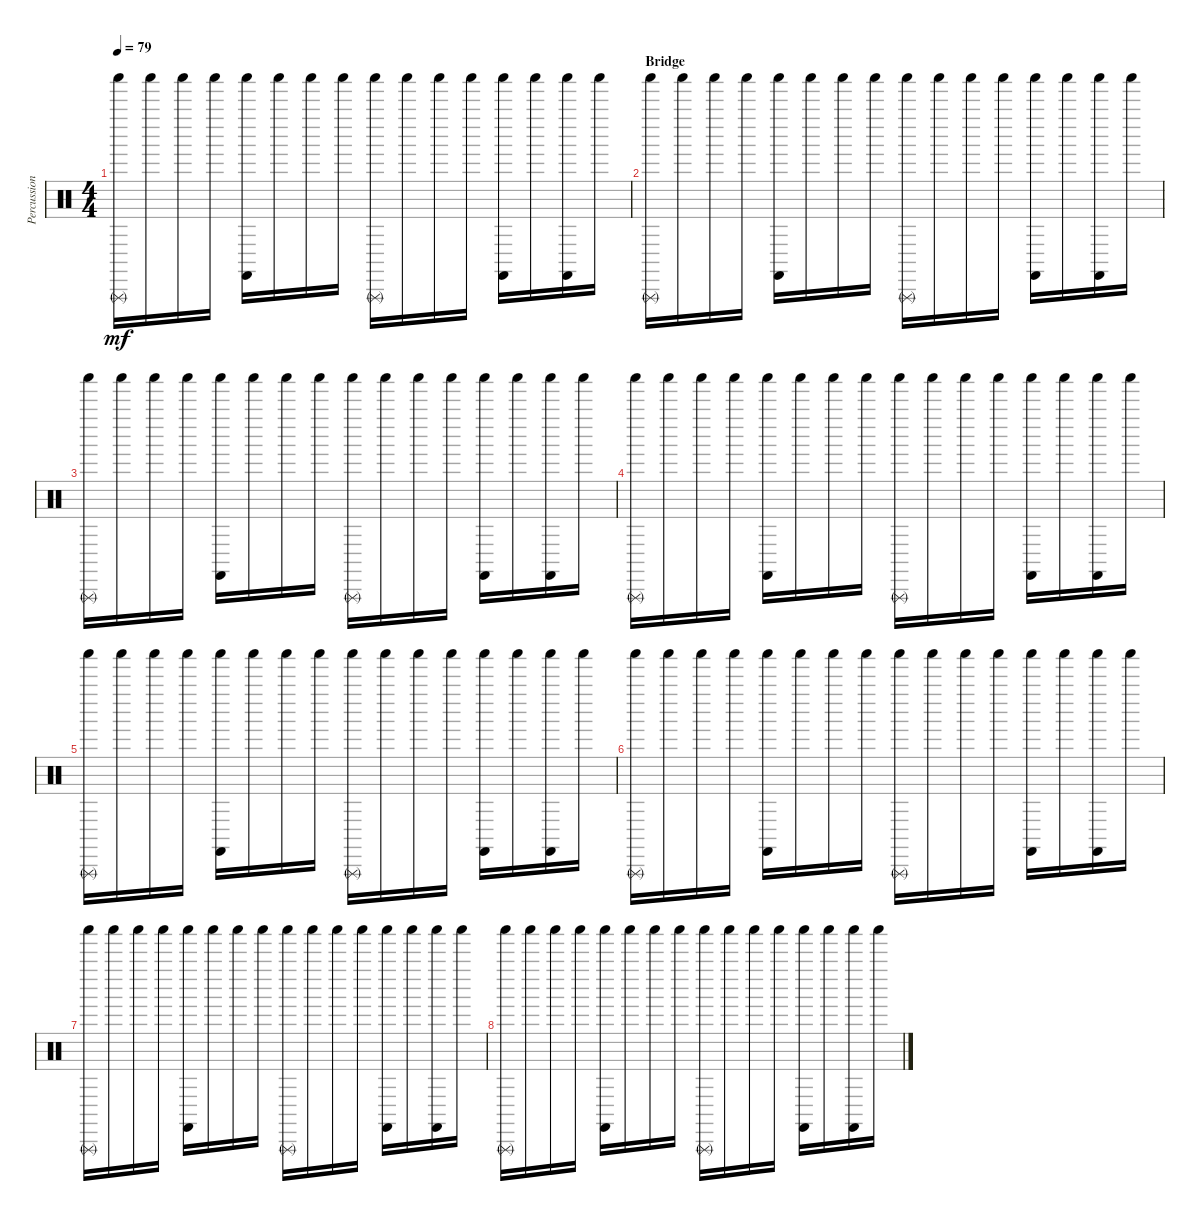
\track ("Percussion" "Percussion") {instrument percussion}
\staff {score}
\articulation defaults
\ts (4 4)
\tempo 79
\clef neutral
\ks c
("Shaker (hit)" "Triangle (rnute)").16{dy mf} "Shaker (hit)".16 "Shaker (hit)".16 "Shaker (hit)".16 ("Shaker (hit)" "Castanets (hit)").16 "Shaker (hit)".16 "Shaker (hit)".16 "Shaker (hit)".16 ("Shaker (hit)" "Triangle (rnute)").16 "Shaker (hit)".16 "Shaker (hit)".16 "Shaker (hit)".16 ("Shaker (hit)" "Castanets (hit)").16 "Shaker (hit)".16 ("Shaker (hit)" "Castanets (hit)").16 "Shaker (hit)".16 |
\section ("" "Bridge")
("Shaker (hit)" "Triangle (rnute)").16 "Shaker (hit)".16 "Shaker (hit)".16 "Shaker (hit)".16 ("Shaker (hit)" "Castanets (hit)").16 "Shaker (hit)".16 "Shaker (hit)".16 "Shaker (hit)".16 ("Shaker (hit)" "Triangle (rnute)").16 "Shaker (hit)".16 "Shaker (hit)".16 "Shaker (hit)".16 ("Shaker (hit)" "Castanets (hit)").16 "Shaker (hit)".16 ("Shaker (hit)" "Castanets (hit)").16 "Shaker (hit)".16 |
("Shaker (hit)" "Triangle (rnute)").16 "Shaker (hit)".16 "Shaker (hit)".16 "Shaker (hit)".16 ("Shaker (hit)" "Castanets (hit)").16 "Shaker (hit)".16 "Shaker (hit)".16 "Shaker (hit)".16 ("Shaker (hit)" "Triangle (rnute)").16 "Shaker (hit)".16 "Shaker (hit)".16 "Shaker (hit)".16 ("Shaker (hit)" "Castanets (hit)").16 "Shaker (hit)".16 ("Shaker (hit)" "Castanets (hit)").16 "Shaker (hit)".16 |
("Shaker (hit)" "Triangle (rnute)").16 "Shaker (hit)".16 "Shaker (hit)".16 "Shaker (hit)".16 ("Shaker (hit)" "Castanets (hit)").16 "Shaker (hit)".16 "Shaker (hit)".16 "Shaker (hit)".16 ("Shaker (hit)" "Triangle (rnute)").16 "Shaker (hit)".16 "Shaker (hit)".16 "Shaker (hit)".16 ("Shaker (hit)" "Castanets (hit)").16 "Shaker (hit)".16 ("Shaker (hit)" "Castanets (hit)").16 "Shaker (hit)".16 |
("Shaker (hit)" "Triangle (rnute)").16 "Shaker (hit)".16 "Shaker (hit)".16 "Shaker (hit)".16 ("Shaker (hit)" "Castanets (hit)").16 "Shaker (hit)".16 "Shaker (hit)".16 "Shaker (hit)".16 ("Shaker (hit)" "Triangle (rnute)").16 "Shaker (hit)".16 "Shaker (hit)".16 "Shaker (hit)".16 ("Shaker (hit)" "Castanets (hit)").16 "Shaker (hit)".16 ("Shaker (hit)" "Castanets (hit)").16 "Shaker (hit)".16 |
("Shaker (hit)" "Triangle (rnute)").16 "Shaker (hit)".16 "Shaker (hit)".16 "Shaker (hit)".16 ("Shaker (hit)" "Castanets (hit)").16 "Shaker (hit)".16 "Shaker (hit)".16 "Shaker (hit)".16 ("Shaker (hit)" "Triangle (rnute)").16 "Shaker (hit)".16 "Shaker (hit)".16 "Shaker (hit)".16 ("Shaker (hit)" "Castanets (hit)").16 "Shaker (hit)".16 ("Shaker (hit)" "Castanets (hit)").16 "Shaker (hit)".16 |
("Shaker (hit)" "Triangle (rnute)").16 "Shaker (hit)".16 "Shaker (hit)".16 "Shaker (hit)".16 ("Shaker (hit)" "Castanets (hit)").16 "Shaker (hit)".16 "Shaker (hit)".16 "Shaker (hit)".16 ("Shaker (hit)" "Triangle (rnute)").16 "Shaker (hit)".16 "Shaker (hit)".16 "Shaker (hit)".16 ("Shaker (hit)" "Castanets (hit)").16 "Shaker (hit)".16 ("Shaker (hit)" "Castanets (hit)").16 "Shaker (hit)".16 |
("Shaker (hit)" "Triangle (rnute)").16 "Shaker (hit)".16 "Shaker (hit)".16 "Shaker (hit)".16 ("Shaker (hit)" "Castanets (hit)").16 "Shaker (hit)".16 "Shaker (hit)".16 "Shaker (hit)".16 ("Shaker (hit)" "Triangle (rnute)").16 "Shaker (hit)".16 "Shaker (hit)".16 "Shaker (hit)".16 ("Shaker (hit)" "Castanets (hit)").16 "Shaker (hit)".16 ("Shaker (hit)" "Castanets (hit)").16 "Shaker (hit)".16
